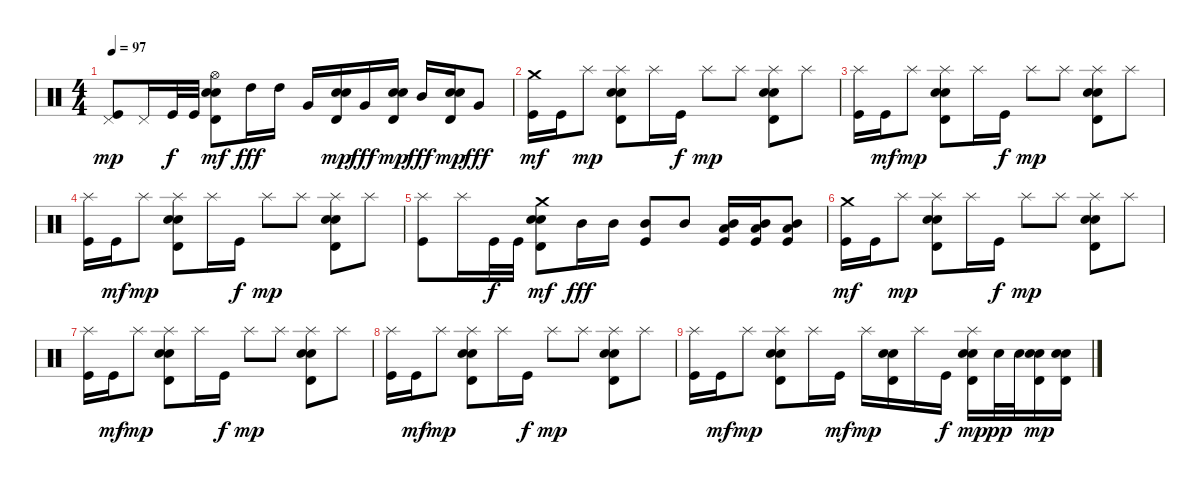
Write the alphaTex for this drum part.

\track "" {instrument percussion}
\staff {score}
\articulation defaults
\ts (4 4)
\tempo 97
\clef neutral
\ks c
("Kick (hit)" "Pedal Hi-Hat (hit)").8{dy mp volume 5} "Pedal Hi-Hat (hit)".16 "Kick (hit)".32{dy f} "Kick (hit)".32 ("Snare (hit) 2" "Electric Snare (hit)" "Timbale high (hit)" "Hi-Hat (open)").8{dy mf} "High Tom (hit)".16{dy fff} "High Tom (hit)".16 "Very Low Tom (hit)".16 ("Snare (hit) 2" "Electric Snare (hit)" "Timbale high (hit)").16{dy mp} "Very Low Tom (hit)".16{dy fff} ("Snare (hit) 2" "Electric Snare (hit)" "Timbale high (hit)").16{dy mp} "Mid Tom (hit)".16{dy fff} ("Snare (hit) 2" "Electric Snare (hit)" "Timbale high (hit)").16{dy mp} "Very Low Tom (hit)".8{dy fff} |
("Kick (hit)" "Crash medium (hit)").16{dy mf volume 4} "Kick (hit)".16 "Splash (hit)".8{dy mp} ("Snare (hit) 2" "Electric Snare (hit)" "Timbale high (hit)" "Splash (hit)").8 "Splash (hit)".16 "Kick (hit)".16{dy f} "Splash (hit)".8{dy mp} "Splash (hit)".8 ("Snare (hit) 2" "Electric Snare (hit)" "Timbale high (hit)" "Splash (hit)").8 "Splash (hit)".8 |
("Kick (hit)" "Splash (hit)").16{volume 3} "Kick (hit)".16{dy mf} "Splash (hit)".8{dy mp} ("Snare (hit) 2" "Electric Snare (hit)" "Timbale high (hit)" "Splash (hit)").8 "Splash (hit)".16 "Kick (hit)".16{dy f} "Splash (hit)".8{dy mp} "Splash (hit)".8 ("Snare (hit) 2" "Electric Snare (hit)" "Timbale high (hit)" "Splash (hit)").8 "Splash (hit)".8 |
("Kick (hit)" "Splash (hit)").16{volume 3} "Kick (hit)".16{dy mf} "Splash (hit)".8{dy mp} ("Snare (hit) 2" "Electric Snare (hit)" "Timbale high (hit)" "Splash (hit)").8 "Splash (hit)".16 "Kick (hit)".16{dy f} "Splash (hit)".8{dy mp} "Splash (hit)".8 ("Snare (hit) 2" "Electric Snare (hit)" "Timbale high (hit)" "Splash (hit)").8 "Splash (hit)".8 |
("Kick (hit)" "Splash (hit)").8{volume 2} "Splash (hit)".16 "Kick (hit)".32{dy f} "Kick (hit)".32 ("Snare (hit) 2" "Electric Snare (hit)" "Timbale high (hit)" "Crash medium (hit)").8{dy mf} "Mid Tom (hit)".16{dy fff} "Mid Tom (hit)".16 ("Kick (hit)" "Mid Tom (hit)").8 "Mid Tom (hit)".8 ("Kick (hit)" "Mid Tom (hit)" "Low Tom (hit)").16 ("Kick (hit)" "Mid Tom (hit)" "Low Tom (hit)").16 ("Kick (hit)" "Mid Tom (hit)" "Low Tom (hit)").8 |
("Kick (hit)" "Crash medium (hit)").16{dy mf volume 2} "Kick (hit)".16 "Splash (hit)".8{dy mp} ("Snare (hit) 2" "Electric Snare (hit)" "Timbale high (hit)" "Splash (hit)").8 "Splash (hit)".16 "Kick (hit)".16{dy f} "Splash (hit)".8{dy mp} "Splash (hit)".8 ("Snare (hit) 2" "Electric Snare (hit)" "Timbale high (hit)" "Splash (hit)").8 "Splash (hit)".8 |
("Kick (hit)" "Splash (hit)").16{volume 1} "Kick (hit)".16{dy mf} "Splash (hit)".8{dy mp} ("Snare (hit) 2" "Electric Snare (hit)" "Timbale high (hit)" "Splash (hit)").8 "Splash (hit)".16 "Kick (hit)".16{dy f} "Splash (hit)".8{dy mp} "Splash (hit)".8 ("Snare (hit) 2" "Electric Snare (hit)" "Timbale high (hit)" "Splash (hit)").8 "Splash (hit)".8 |
("Kick (hit)" "Splash (hit)").16{volume 1} "Kick (hit)".16{dy mf} "Splash (hit)".8{dy mp} ("Snare (hit) 2" "Electric Snare (hit)" "Timbale high (hit)" "Splash (hit)").8 "Splash (hit)".16 "Kick (hit)".16{dy f} "Splash (hit)".8{dy mp} "Splash (hit)".8 ("Snare (hit) 2" "Electric Snare (hit)" "Timbale high (hit)" "Splash (hit)").8 "Splash (hit)".8 |
("Kick (hit)" "Splash (hit)").16{volume 0} "Kick (hit)".16{dy mf} "Splash (hit)".8{dy mp} ("Snare (hit) 2" "Electric Snare (hit)" "Timbale high (hit)" "Splash (hit)").8 "Splash (hit)".16 "Kick (hit)".16{dy mf} "Splash (hit)".16{dy mp} ("Snare (hit) 2" "Electric Snare (hit)" "Timbale high (hit)").16 "Splash (hit)".16 "Kick (hit)".16{dy f} ("Snare (hit) 2" "Electric Snare (hit)" "Timbale high (hit)" "Splash (hit)").16{dy mp} "Snare (hit) 2".32{dy pp} "Snare (hit) 2".32 ("Snare (hit) 2" "Electric Snare (hit)" "Timbale high (hit)").16{dy mp} ("Snare (hit) 2" "Electric Snare (hit)" "Timbale high (hit)").16
